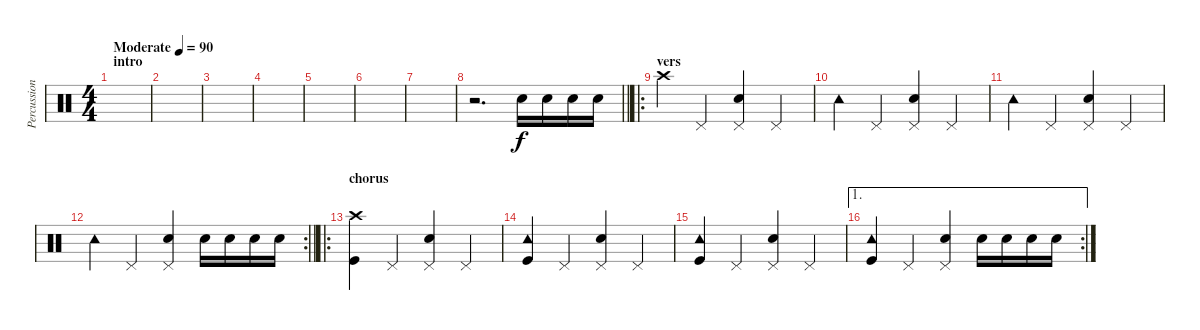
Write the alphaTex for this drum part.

\track ("Percussion" "Percussion") {instrument percussion}
\staff {score}
\articulation defaults
\ts (4 4)
\section ("" "intro")
\tempo (90 "Moderate")
\clef neutral
\ks c
|
|
|
|
|
|
|
\barLineRight lightlight
r.2{d} "Snare (hit) 2".16 "Snare (hit) 2".16 "Snare (hit) 2".16 "Snare (hit) 2".16 |
\ro
\section ("" "vers")
"Crash high (hit)".4 "Pedal Hi-Hat (hit)".4 ("Pedal Hi-Hat (hit)" "Snare (hit) 2").4 "Pedal Hi-Hat (hit)".4 |
"Tambourine (hit)".4 "Pedal Hi-Hat (hit)".4 ("Pedal Hi-Hat (hit)" "Snare (hit) 2").4 "Pedal Hi-Hat (hit)".4 |
"Tambourine (hit)".4 "Pedal Hi-Hat (hit)".4 ("Pedal Hi-Hat (hit)" "Snare (hit) 2").4 "Pedal Hi-Hat (hit)".4 |
\rc 2
\barLineRight lightlight "Tambourine (hit)".4 "Pedal Hi-Hat (hit)".4
("Pedal Hi-Hat (hit)" "Snare (hit) 2").4 "Snare (hit) 2".16 "Snare (hit) 2".16 "Snare (hit) 2".16 "Snare (hit) 2".16 |
\ro
\section ("" "chorus")
("Crash high (hit)" "Kick (hit)").4 "Pedal Hi-Hat (hit)".4 ("Pedal Hi-Hat (hit)" "Snare (hit) 2").4 "Pedal Hi-Hat (hit)".4 |
("Tambourine (hit)" "Kick (hit)").4 "Pedal Hi-Hat (hit)".4 ("Pedal Hi-Hat (hit)" "Snare (hit) 2").4 "Pedal Hi-Hat (hit)".4 |
("Tambourine (hit)" "Kick (hit)").4 "Pedal Hi-Hat (hit)".4 ("Pedal Hi-Hat (hit)" "Snare (hit) 2").4 "Pedal Hi-Hat (hit)".4 |
\ae 1
\rc 2
("Tambourine (hit)" "Kick (hit)").4 "Pedal Hi-Hat (hit)".4 ("Pedal Hi-Hat (hit)" "Snare (hit) 2").4 "Snare (hit) 2".16 "Snare (hit) 2".16 "Snare (hit) 2".16 "Snare (hit) 2".16
